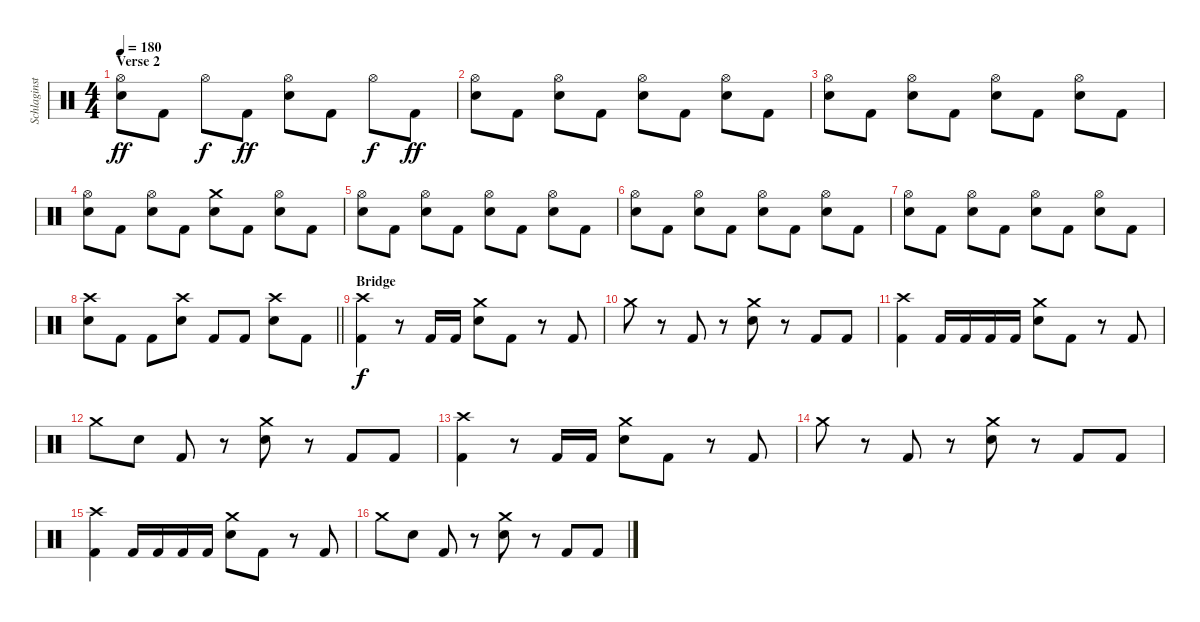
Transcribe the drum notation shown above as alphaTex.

\track ("Schlaginstrumente - Auswahl" "Schlaginst") {instrument percussion}
\staff {score}
\articulation defaults
\ts (4 4)
\section ("" "Verse 2")
\tempo 180
\clef neutral
\ks c
("Hi-Hat (open)" "Electric Snare (hit)").8{dy ff} "Kick (hit) 2".8 "Hi-Hat (open)".8{dy f} "Kick (hit) 2".8{dy ff} ("Hi-Hat (open)" "Electric Snare (hit)").8 "Kick (hit) 2".8 "Hi-Hat (open)".8{dy f} "Kick (hit) 2".8{dy ff} |
("Hi-Hat (open)" "Electric Snare (hit)").8 "Kick (hit) 2".8 ("Hi-Hat (open)" "Electric Snare (hit)").8 "Kick (hit) 2".8 ("Hi-Hat (open)" "Electric Snare (hit)").8 "Kick (hit) 2".8 ("Hi-Hat (open)" "Electric Snare (hit)").8 "Kick (hit) 2".8 |
("Hi-Hat (open)" "Electric Snare (hit)").8 "Kick (hit) 2".8 ("Hi-Hat (open)" "Electric Snare (hit)").8 "Kick (hit) 2".8 ("Hi-Hat (open)" "Electric Snare (hit)").8 "Kick (hit) 2".8 ("Hi-Hat (open)" "Electric Snare (hit)").8 "Kick (hit) 2".8 |
("Hi-Hat (open)" "Electric Snare (hit)").8 "Kick (hit) 2".8 ("Hi-Hat (open)" "Electric Snare (hit)").8 "Kick (hit) 2".8 ("Crash medium (hit)" "Electric Snare (hit)").8 "Kick (hit) 2".8 ("Hi-Hat (open)" "Electric Snare (hit)").8 "Kick (hit) 2".8 |
("Hi-Hat (open)" "Electric Snare (hit)").8 "Kick (hit) 2".8 ("Hi-Hat (open)" "Electric Snare (hit)").8 "Kick (hit) 2".8 ("Hi-Hat (open)" "Electric Snare (hit)").8 "Kick (hit) 2".8 ("Hi-Hat (open)" "Electric Snare (hit)").8 "Kick (hit) 2".8 |
("Hi-Hat (open)" "Electric Snare (hit)").8 "Kick (hit) 2".8 ("Hi-Hat (open)" "Electric Snare (hit)").8 "Kick (hit) 2".8 ("Hi-Hat (open)" "Electric Snare (hit)").8 "Kick (hit) 2".8 ("Hi-Hat (open)" "Electric Snare (hit)").8 "Kick (hit) 2".8 |
("Hi-Hat (open)" "Electric Snare (hit)").8 "Kick (hit) 2".8 ("Hi-Hat (open)" "Electric Snare (hit)").8 "Kick (hit) 2".8 ("Hi-Hat (open)" "Electric Snare (hit)").8 "Kick (hit) 2".8 ("Hi-Hat (open)" "Electric Snare (hit)").8 "Kick (hit) 2".8 |
\barLineRight lightlight
("Crash high (hit)" "Electric Snare (hit)").8 "Kick (hit) 2".8 "Kick (hit) 2".8 ("Crash high (hit)" "Electric Snare (hit)").8 "Kick (hit) 2".8 "Kick (hit) 2".8 ("Crash high (hit)" "Electric Snare (hit)").8 "Kick (hit) 2".8 |
\section ("" "Bridge")
("Kick (hit) 2" "Crash high (hit)").4{dy f} r.8 "Kick (hit) 2".16 "Kick (hit) 2".16 ("Electric Snare (hit)" "Crash medium (hit)").8 "Kick (hit) 2".8 r.8 "Kick (hit) 2".8 |
"Crash medium (hit)".8 r.8 "Kick (hit) 2".8 r.8 ("Electric Snare (hit)" "Crash medium (hit)").8 r.8 "Kick (hit) 2".8 "Kick (hit) 2".8 |
("Kick (hit) 2" "Crash high (hit)").4 "Kick (hit) 2".16 "Kick (hit) 2".16 "Kick (hit) 2".16 "Kick (hit) 2".16 ("Electric Snare (hit)" "Crash medium (hit)").8 "Kick (hit) 2".8 r.8 "Kick (hit) 2".8 |
"Crash medium (hit)".8 "Electric Snare (hit)".8 "Kick (hit) 2".8 r.8 ("Electric Snare (hit)" "Crash medium (hit)").8 r.8 "Kick (hit) 2".8 "Kick (hit) 2".8 |
("Kick (hit) 2" "Crash high (hit)").4 r.8 "Kick (hit) 2".16 "Kick (hit) 2".16 ("Electric Snare (hit)" "Crash medium (hit)").8 "Kick (hit) 2".8 r.8 "Kick (hit) 2".8 |
"Crash medium (hit)".8 r.8 "Kick (hit) 2".8 r.8 ("Electric Snare (hit)" "Crash medium (hit)").8 r.8 "Kick (hit) 2".8 "Kick (hit) 2".8 |
("Kick (hit) 2" "Crash high (hit)").4 "Kick (hit) 2".16 "Kick (hit) 2".16 "Kick (hit) 2".16 "Kick (hit) 2".16 ("Electric Snare (hit)" "Crash medium (hit)").8 "Kick (hit) 2".8 r.8 "Kick (hit) 2".8 |
"Crash medium (hit)".8 "Electric Snare (hit)".8 "Kick (hit) 2".8 r.8 ("Electric Snare (hit)" "Crash medium (hit)").8 r.8 "Kick (hit) 2".8 "Kick (hit) 2".8
